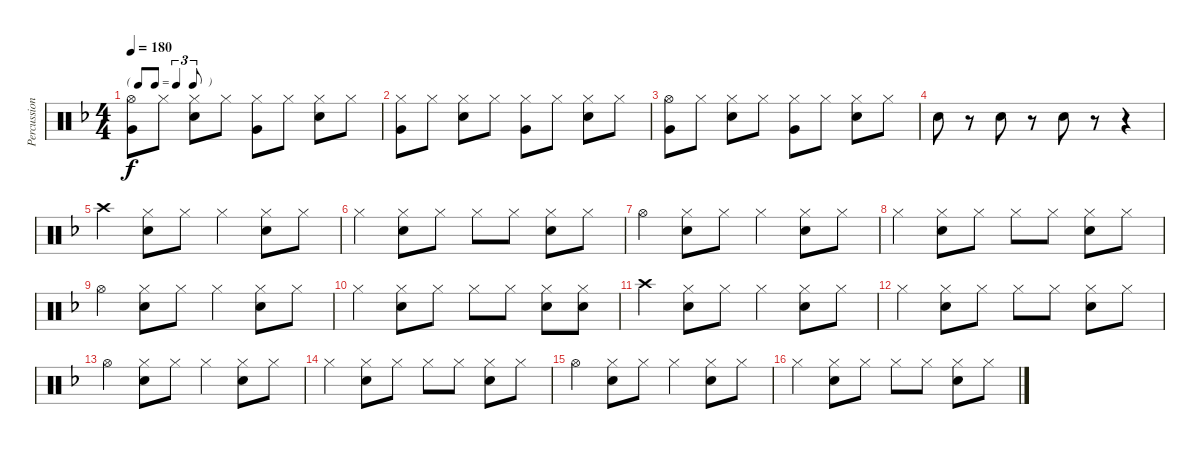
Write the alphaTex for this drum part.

\track ("Percussion" "Percussion") {instrument percussion}
\staff {score}
\articulation defaults
\ts (4 4)
\tf triplet8th
\tempo 180
\clef neutral
\ks f
("Hi-Hat (open)" "Very Low Tom (hit)").8{dy f} "Hi-Hat (closed)".8 ("Hi-Hat (closed)" "Snare (hit) 2").8 "Hi-Hat (closed)".8 ("Hi-Hat (closed)" "Very Low Tom (hit)").8 "Hi-Hat (closed)".8 ("Hi-Hat (closed)" "Snare (hit) 2").8 "Hi-Hat (closed)".8 |
("Hi-Hat (closed)" "Very Low Tom (hit)").8 "Hi-Hat (closed)".8 ("Hi-Hat (closed)" "Snare (hit) 2").8 "Hi-Hat (closed)".8 ("Hi-Hat (closed)" "Very Low Tom (hit)").8 "Hi-Hat (closed)".8 ("Hi-Hat (closed)" "Snare (hit) 2").8 "Hi-Hat (closed)".8 |
("Hi-Hat (open)" "Very Low Tom (hit)").8 "Hi-Hat (closed)".8 ("Hi-Hat (closed)" "Snare (hit) 2").8 "Hi-Hat (closed)".8 ("Hi-Hat (closed)" "Very Low Tom (hit)").8 "Hi-Hat (closed)".8 ("Hi-Hat (closed)" "Snare (hit) 2").8 "Hi-Hat (closed)".8 |
"Snare (hit) 2".8 r.8 "Snare (hit) 2".8 r.8 "Snare (hit) 2".8 r.8 r.4 |
"Crash high (hit)".4 ("Hi-Hat (closed)" "Snare (hit) 2").8 "Hi-Hat (closed)".8 "Hi-Hat (closed)".4 ("Hi-Hat (closed)" "Snare (hit) 2").8 "Hi-Hat (closed)".8 |
"Hi-Hat (closed)".4 ("Hi-Hat (closed)" "Snare (hit) 2").8 "Hi-Hat (closed)".8 "Hi-Hat (closed)".8 "Hi-Hat (closed)".8 ("Hi-Hat (closed)" "Snare (hit) 2").8 "Hi-Hat (closed)".8 |
"Hi-Hat (open)".4 ("Hi-Hat (closed)" "Snare (hit) 2").8 "Hi-Hat (closed)".8 "Hi-Hat (closed)".4 ("Hi-Hat (closed)" "Snare (hit) 2").8 "Hi-Hat (closed)".8 |
"Hi-Hat (closed)".4 ("Hi-Hat (closed)" "Snare (hit) 2").8 "Hi-Hat (closed)".8 "Hi-Hat (closed)".8 "Hi-Hat (closed)".8 ("Hi-Hat (closed)" "Snare (hit) 2").8 "Hi-Hat (closed)".8 |
"Hi-Hat (open)".4 ("Hi-Hat (closed)" "Snare (hit) 2").8 "Hi-Hat (closed)".8 "Hi-Hat (closed)".4 ("Hi-Hat (closed)" "Snare (hit) 2").8 "Hi-Hat (closed)".8 |
"Hi-Hat (closed)".4 ("Hi-Hat (closed)" "Snare (hit) 2").8 "Hi-Hat (closed)".8 "Hi-Hat (closed)".8 "Hi-Hat (closed)".8 ("Hi-Hat (closed)" "Snare (hit) 2").8 ("Hi-Hat (closed)" "Snare (hit) 2").8 |
"Crash high (hit)".4 ("Hi-Hat (closed)" "Snare (hit) 2").8 "Hi-Hat (closed)".8 "Hi-Hat (closed)".4 ("Hi-Hat (closed)" "Snare (hit) 2").8 "Hi-Hat (closed)".8 |
"Hi-Hat (closed)".4 ("Hi-Hat (closed)" "Snare (hit) 2").8 "Hi-Hat (closed)".8 "Hi-Hat (closed)".8 "Hi-Hat (closed)".8 ("Hi-Hat (closed)" "Snare (hit) 2").8 "Hi-Hat (closed)".8 |
"Hi-Hat (open)".4 ("Hi-Hat (closed)" "Snare (hit) 2").8 "Hi-Hat (closed)".8 "Hi-Hat (closed)".4 ("Hi-Hat (closed)" "Snare (hit) 2").8 "Hi-Hat (closed)".8 |
"Hi-Hat (closed)".4 ("Hi-Hat (closed)" "Snare (hit) 2").8 "Hi-Hat (closed)".8 "Hi-Hat (closed)".8 "Hi-Hat (closed)".8 ("Hi-Hat (closed)" "Snare (hit) 2").8 "Hi-Hat (closed)".8 |
"Hi-Hat (open)".4 ("Hi-Hat (closed)" "Snare (hit) 2").8 "Hi-Hat (closed)".8 "Hi-Hat (closed)".4 ("Hi-Hat (closed)" "Snare (hit) 2").8 "Hi-Hat (closed)".8 |
"Hi-Hat (closed)".4 ("Hi-Hat (closed)" "Snare (hit) 2").8 "Hi-Hat (closed)".8 "Hi-Hat (closed)".8 "Hi-Hat (closed)".8 ("Hi-Hat (closed)" "Snare (hit) 2").8 "Hi-Hat (closed)".8
